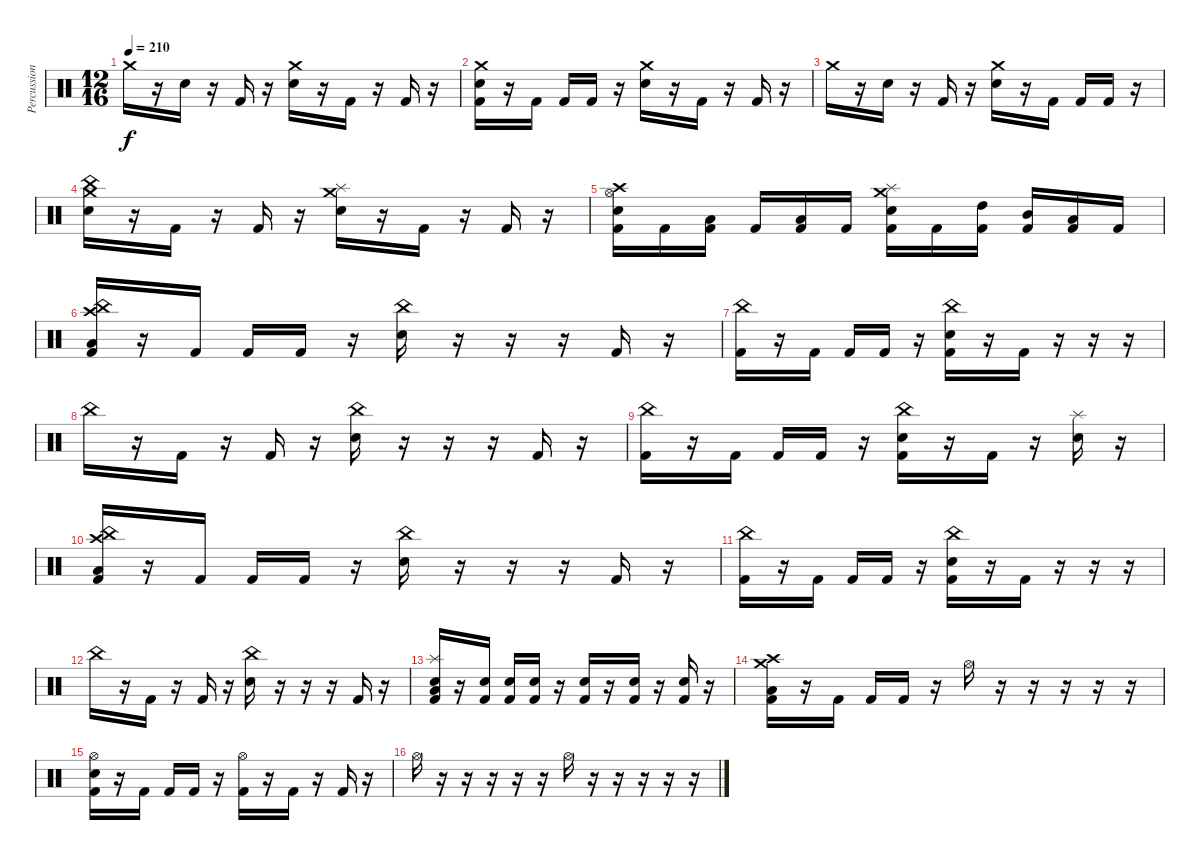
\track ("Percussion" "Percussion") {instrument percussion}
\staff {score}
\articulation defaults
\ts (12 16)
\tempo 210
\clef neutral
\ks c "Crash medium (hit)".16{dy f}
r.16 "Electric Snare (hit)".16 r.16 "Kick (hit) 2".16 r.16 ("Crash medium (hit)" "Electric Snare (hit)").16 r.16 "Kick (hit) 2".16 r.16 "Kick (hit) 2".16 r.16 |
("Crash medium (hit)" "Electric Snare (hit)" "Kick (hit) 2").16 r.16 "Kick (hit) 2".16 "Kick (hit) 2".16 "Kick (hit) 2".16 r.16 ("Crash medium (hit)" "Electric Snare (hit)").16 r.16 "Kick (hit) 2".16 r.16 "Kick (hit) 2".16 r.16 |
"Crash medium (hit)".16 r.16 "Electric Snare (hit)".16 r.16 "Kick (hit) 2".16 r.16 ("Crash medium (hit)" "Electric Snare (hit)").16 r.16 "Kick (hit) 2".16 "Kick (hit) 2".16 "Kick (hit) 2".16 r.16 |
("Crash medium (hit)" "China (hit)" "Electric Snare (hit)").16 r.16 "Kick (hit) 2".16 r.16 "Kick (hit) 2".16 r.16 ("Crash medium (hit)" "Splash (hit)" "Electric Snare (hit)").16 r.16 "Kick (hit) 2".16 r.16 "Kick (hit) 2".16 r.16 |
("Crash high (hit)" "Hi-Hat (open)" "Electric Snare (hit)" "Kick (hit) 2").16 "Kick (hit) 2".16 ("Low Tom (hit)" "Kick (hit) 2").16 "Kick (hit) 2".16 ("Low Floor Tom (hit)" "Kick (hit) 2").16 "Kick (hit) 2".16 ("Crash medium (hit)" "Splash (hit)" "Electric Snare (hit)" "Kick (hit) 2").16 "Kick (hit) 2".16 ("High Tom (hit)" "Kick (hit) 2").16 ("Mid Tom (hit)" "Kick (hit) 2").16 ("Low Tom (hit)" "Kick (hit) 2").16 "Kick (hit) 2".16 |
("China (hit)" "Crash high (hit)" "Low Floor Tom (hit)" "Kick (hit) 2").16 r.16 "Kick (hit) 2".16 "Kick (hit) 2".16 "Kick (hit) 2".16 r.16 ("China (hit)" "Electric Snare (hit)").16 r.16 r.16 r.16 "Kick (hit) 2".16 r.16 |
("China (hit)" "Kick (hit) 2").16 r.16 "Kick (hit) 2".16 "Kick (hit) 2".16 "Kick (hit) 2".16 r.16 ("China (hit)" "Electric Snare (hit)" "Kick (hit) 2").16 r.16 "Kick (hit) 2".16 r.16 r.16 r.16 |
"China (hit)".16 r.16 "Kick (hit) 2".16 r.16 "Kick (hit) 2".16 r.16 ("China (hit)" "Electric Snare (hit)").16 r.16 r.16 r.16 "Kick (hit) 2".16 r.16 |
("China (hit)" "Kick (hit) 2").16 r.16 "Kick (hit) 2".16 "Kick (hit) 2".16 "Kick (hit) 2".16 r.16 ("China (hit)" "Electric Snare (hit)" "Kick (hit) 2").16 r.16 "Kick (hit) 2".16 r.16 ("Splash (hit)" "Electric Snare (hit)").16 r.16 |
("China (hit)" "Crash high (hit)" "Low Floor Tom (hit)" "Kick (hit) 2").16 r.16 "Kick (hit) 2".16 "Kick (hit) 2".16 "Kick (hit) 2".16 r.16 ("China (hit)" "Electric Snare (hit)").16 r.16 r.16 r.16 "Kick (hit) 2".16 r.16 |
("China (hit)" "Kick (hit) 2").16 r.16 "Kick (hit) 2".16 "Kick (hit) 2".16 "Kick (hit) 2".16 r.16 ("China (hit)" "Electric Snare (hit)" "Kick (hit) 2").16 r.16 "Kick (hit) 2".16 r.16 r.16 r.16 |
"China (hit)".16 r.16 "Kick (hit) 2".16 r.16 "Kick (hit) 2".16 r.16 ("China (hit)" "Electric Snare (hit)").16 r.16 r.16 r.16 "Kick (hit) 2".16 r.16 |
("Splash (hit)" "Electric Snare (hit)" "Low Floor Tom (hit)" "Kick (hit) 2").16 r.16 ("Electric Snare (hit)" "Kick (hit) 2").16 ("Electric Snare (hit)" "Kick (hit) 2").16 ("Electric Snare (hit)" "Kick (hit) 2").16 r.16 ("Electric Snare (hit)" "Kick (hit) 2").16 r.16 ("Electric Snare (hit)" "Kick (hit) 2").16 r.16 ("Electric Snare (hit)" "Kick (hit) 2").16 r.16 |
("Crash high (hit)" "Crash medium (hit)" "Low Floor Tom (hit)" "Kick (hit) 2").16 r.16 "Kick (hit) 2".16 "Kick (hit) 2".16 "Kick (hit) 2".16 r.16 "Hi-Hat (open)".16 r.16 r.16 r.16 r.16 r.16 |
("Hi-Hat (open)" "Electric Snare (hit)" "Kick (hit) 2").16 r.16 "Kick (hit) 2".16 "Kick (hit) 2".16 "Kick (hit) 2".16 r.16 ("Hi-Hat (open)" "Kick (hit) 2").16 r.16 "Kick (hit) 2".16 r.16 "Kick (hit) 2".16 r.16 |
"Hi-Hat (open)".16 r.16 r.16 r.16 r.16 r.16 "Hi-Hat (open)".16 r.16 r.16 r.16 r.16 r.16
